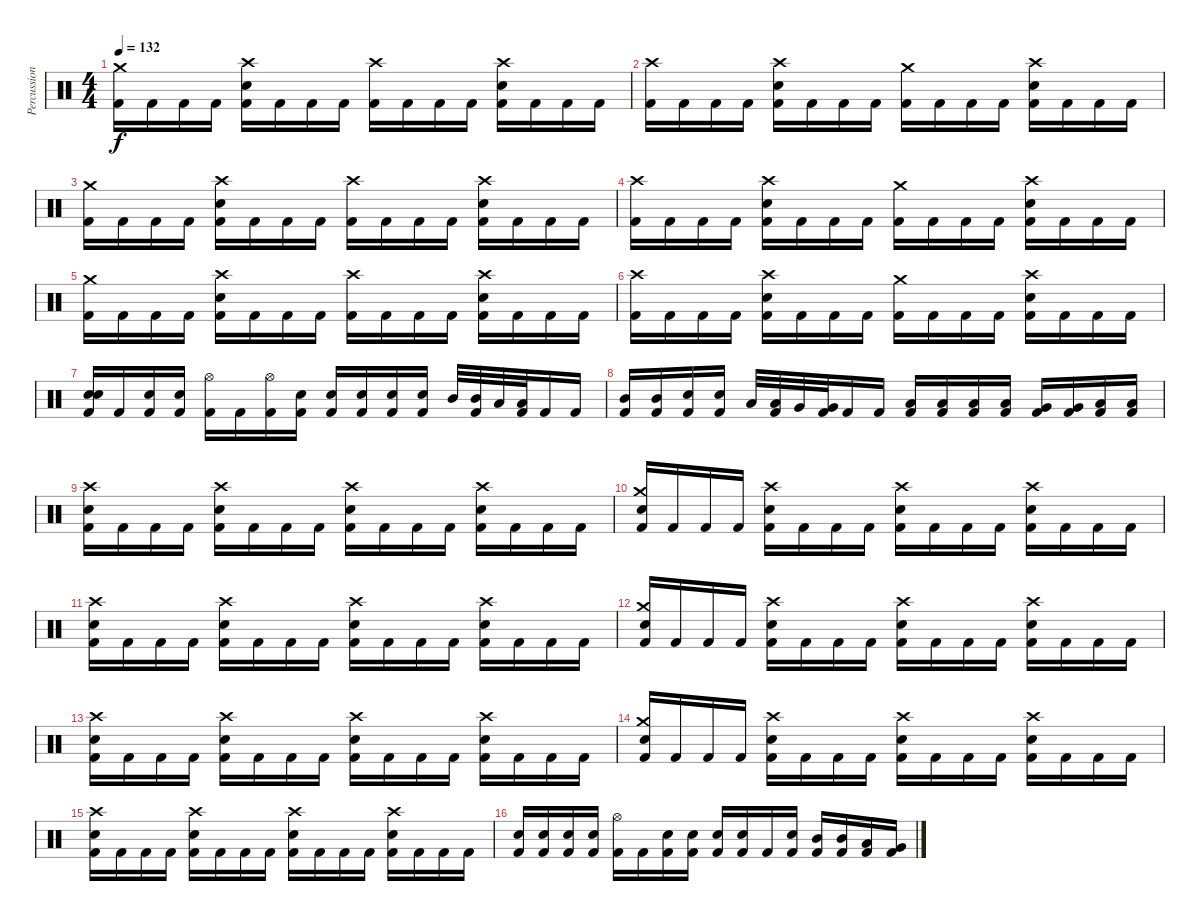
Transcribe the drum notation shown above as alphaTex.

\track ("Percussion" "Percussion") {instrument percussion}
\staff {score}
\articulation defaults
\ts (4 4)
\tempo 132
\clef neutral
\ks c
("Kick (hit) 2" "Crash medium (hit)").16{dy f} "Kick (hit) 2".16 "Kick (hit) 2".16 "Kick (hit) 2".16 ("Snare (hit) 2" "Kick (hit) 2" "Crash high (hit)").16 "Kick (hit) 2".16 "Kick (hit) 2".16 "Kick (hit) 2".16 ("Kick (hit) 2" "Crash high (hit)").16 "Kick (hit) 2".16 "Kick (hit) 2".16 "Kick (hit) 2".16 ("Snare (hit) 2" "Kick (hit) 2" "Crash high (hit)").16 "Kick (hit) 2".16 "Kick (hit) 2".16 "Kick (hit) 2".16 |
("Kick (hit) 2" "Crash high (hit)").16 "Kick (hit) 2".16 "Kick (hit) 2".16 "Kick (hit) 2".16 ("Snare (hit) 2" "Kick (hit) 2" "Crash high (hit)").16 "Kick (hit) 2".16 "Kick (hit) 2".16 "Kick (hit) 2".16 ("Kick (hit) 2" "Crash medium (hit)").16 "Kick (hit) 2".16 "Kick (hit) 2".16 "Kick (hit) 2".16 ("Snare (hit) 2" "Kick (hit) 2" "Crash high (hit)").16 "Kick (hit) 2".16 "Kick (hit) 2".16 "Kick (hit) 2".16 |
("Kick (hit) 2" "Crash medium (hit)").16 "Kick (hit) 2".16 "Kick (hit) 2".16 "Kick (hit) 2".16 ("Snare (hit) 2" "Kick (hit) 2" "Crash high (hit)").16 "Kick (hit) 2".16 "Kick (hit) 2".16 "Kick (hit) 2".16 ("Kick (hit) 2" "Crash high (hit)").16 "Kick (hit) 2".16 "Kick (hit) 2".16 "Kick (hit) 2".16 ("Snare (hit) 2" "Kick (hit) 2" "Crash high (hit)").16 "Kick (hit) 2".16 "Kick (hit) 2".16 "Kick (hit) 2".16 |
("Kick (hit) 2" "Crash high (hit)").16 "Kick (hit) 2".16 "Kick (hit) 2".16 "Kick (hit) 2".16 ("Snare (hit) 2" "Kick (hit) 2" "Crash high (hit)").16 "Kick (hit) 2".16 "Kick (hit) 2".16 "Kick (hit) 2".16 ("Kick (hit) 2" "Crash medium (hit)").16 "Kick (hit) 2".16 "Kick (hit) 2".16 "Kick (hit) 2".16 ("Snare (hit) 2" "Kick (hit) 2" "Crash high (hit)").16 "Kick (hit) 2".16 "Kick (hit) 2".16 "Kick (hit) 2".16 |
("Kick (hit) 2" "Crash medium (hit)").16 "Kick (hit) 2".16 "Kick (hit) 2".16 "Kick (hit) 2".16 ("Snare (hit) 2" "Kick (hit) 2" "Crash high (hit)").16 "Kick (hit) 2".16 "Kick (hit) 2".16 "Kick (hit) 2".16 ("Kick (hit) 2" "Crash high (hit)").16 "Kick (hit) 2".16 "Kick (hit) 2".16 "Kick (hit) 2".16 ("Snare (hit) 2" "Kick (hit) 2" "Crash high (hit)").16 "Kick (hit) 2".16 "Kick (hit) 2".16 "Kick (hit) 2".16 |
("Kick (hit) 2" "Crash high (hit)").16 "Kick (hit) 2".16 "Kick (hit) 2".16 "Kick (hit) 2".16 ("Snare (hit) 2" "Kick (hit) 2" "Crash high (hit)").16 "Kick (hit) 2".16 "Kick (hit) 2".16 "Kick (hit) 2".16 ("Kick (hit) 2" "Crash medium (hit)").16 "Kick (hit) 2".16 "Kick (hit) 2".16 "Kick (hit) 2".16 ("Snare (hit) 2" "Kick (hit) 2" "Crash high (hit)").16 "Kick (hit) 2".16 "Kick (hit) 2".16 "Kick (hit) 2".16 |
("Snare (hit) 2" "Snare (hit) 2" "Kick (hit) 2").16 "Kick (hit) 2".16 ("Snare (hit) 2" "Kick (hit) 2").16 ("Snare (hit) 2" "Kick (hit) 2").16 ("Hi-Hat (open)" "Kick (hit) 2").16 "Kick (hit) 2".16 ("Hi-Hat (open)" "Kick (hit) 2").16 ("Snare (hit) 2" "Kick (hit) 2").16 ("Snare (hit) 2" "Kick (hit) 2").16 ("Snare (hit) 2" "Kick (hit) 2").16 ("Snare (hit) 2" "Kick (hit) 2").16 ("Snare (hit) 2" "Kick (hit) 2").16 "Mid Tom (hit)".32 ("Kick (hit) 2" "Mid Tom (hit)").32 "Low Tom (hit)".32 ("Kick (hit) 2" "Low Tom (hit)").32 "Kick (hit) 2".16 "Kick (hit) 2".16 |
("Mid Tom (hit)" "Kick (hit) 2").16 ("Mid Tom (hit)" "Kick (hit) 2").16 ("Snare (hit) 2" "Kick (hit) 2").16 ("Snare (hit) 2" "Kick (hit) 2").16 "Low Tom (hit)".32 ("Low Tom (hit)" "Kick (hit) 2").32 "Very Low Tom (hit)".32 ("Very Low Tom (hit)" "Kick (hit) 2").32 "Kick (hit) 2".16 "Kick (hit) 2".16 ("Low Tom (hit)" "Kick (hit) 2").16 ("Low Tom (hit)" "Kick (hit) 2").16 ("Low Tom (hit)" "Kick (hit) 2").16 ("Low Tom (hit)" "Kick (hit) 2").16 ("Very Low Tom (hit)" "Kick (hit) 2").16 ("Very Low Tom (hit)" "Kick (hit) 2").16 ("Low Floor Tom (hit)" "Kick (hit) 2").16 ("Low Floor Tom (hit)" "Kick (hit) 2").16 |
("Snare (hit) 2" "Kick (hit) 2" "Crash high (hit)").16 "Kick (hit) 2".16 "Kick (hit) 2".16 "Kick (hit) 2".16 ("Snare (hit) 2" "Kick (hit) 2" "Crash high (hit)").16 "Kick (hit) 2".16 "Kick (hit) 2".16 "Kick (hit) 2".16 ("Snare (hit) 2" "Kick (hit) 2" "Crash high (hit)").16 "Kick (hit) 2".16 "Kick (hit) 2".16 "Kick (hit) 2".16 ("Snare (hit) 2" "Kick (hit) 2" "Crash high (hit)").16 "Kick (hit) 2".16 "Kick (hit) 2".16 "Kick (hit) 2".16 |
("Snare (hit) 2" "Kick (hit) 2" "Crash medium (hit)").16 "Kick (hit) 2".16 "Kick (hit) 2".16 "Kick (hit) 2".16 ("Snare (hit) 2" "Kick (hit) 2" "Crash high (hit)").16 "Kick (hit) 2".16 "Kick (hit) 2".16 "Kick (hit) 2".16 ("Snare (hit) 2" "Kick (hit) 2" "Crash high (hit)").16 "Kick (hit) 2".16 "Kick (hit) 2".16 "Kick (hit) 2".16 ("Snare (hit) 2" "Kick (hit) 2" "Crash high (hit)").16 "Kick (hit) 2".16 "Kick (hit) 2".16 "Kick (hit) 2".16 |
("Snare (hit) 2" "Kick (hit) 2" "Crash high (hit)").16 "Kick (hit) 2".16 "Kick (hit) 2".16 "Kick (hit) 2".16 ("Snare (hit) 2" "Kick (hit) 2" "Crash high (hit)").16 "Kick (hit) 2".16 "Kick (hit) 2".16 "Kick (hit) 2".16 ("Snare (hit) 2" "Kick (hit) 2" "Crash high (hit)").16 "Kick (hit) 2".16 "Kick (hit) 2".16 "Kick (hit) 2".16 ("Snare (hit) 2" "Kick (hit) 2" "Crash high (hit)").16 "Kick (hit) 2".16 "Kick (hit) 2".16 "Kick (hit) 2".16 |
("Snare (hit) 2" "Kick (hit) 2" "Crash medium (hit)").16 "Kick (hit) 2".16 "Kick (hit) 2".16 "Kick (hit) 2".16 ("Snare (hit) 2" "Kick (hit) 2" "Crash high (hit)").16 "Kick (hit) 2".16 "Kick (hit) 2".16 "Kick (hit) 2".16 ("Snare (hit) 2" "Kick (hit) 2" "Crash high (hit)").16 "Kick (hit) 2".16 "Kick (hit) 2".16 "Kick (hit) 2".16 ("Snare (hit) 2" "Kick (hit) 2" "Crash high (hit)").16 "Kick (hit) 2".16 "Kick (hit) 2".16 "Kick (hit) 2".16 |
("Snare (hit) 2" "Kick (hit) 2" "Crash high (hit)").16 "Kick (hit) 2".16 "Kick (hit) 2".16 "Kick (hit) 2".16 ("Snare (hit) 2" "Kick (hit) 2" "Crash high (hit)").16 "Kick (hit) 2".16 "Kick (hit) 2".16 "Kick (hit) 2".16 ("Snare (hit) 2" "Kick (hit) 2" "Crash high (hit)").16 "Kick (hit) 2".16 "Kick (hit) 2".16 "Kick (hit) 2".16 ("Snare (hit) 2" "Kick (hit) 2" "Crash high (hit)").16 "Kick (hit) 2".16 "Kick (hit) 2".16 "Kick (hit) 2".16 |
("Snare (hit) 2" "Kick (hit) 2" "Crash medium (hit)").16 "Kick (hit) 2".16 "Kick (hit) 2".16 "Kick (hit) 2".16 ("Snare (hit) 2" "Kick (hit) 2" "Crash high (hit)").16 "Kick (hit) 2".16 "Kick (hit) 2".16 "Kick (hit) 2".16 ("Snare (hit) 2" "Kick (hit) 2" "Crash high (hit)").16 "Kick (hit) 2".16 "Kick (hit) 2".16 "Kick (hit) 2".16 ("Snare (hit) 2" "Kick (hit) 2" "Crash high (hit)").16 "Kick (hit) 2".16 "Kick (hit) 2".16 "Kick (hit) 2".16 |
("Snare (hit) 2" "Kick (hit) 2" "Crash high (hit)").16 "Kick (hit) 2".16 "Kick (hit) 2".16 "Kick (hit) 2".16 ("Snare (hit) 2" "Kick (hit) 2" "Crash high (hit)").16 "Kick (hit) 2".16 "Kick (hit) 2".16 "Kick (hit) 2".16 ("Snare (hit) 2" "Kick (hit) 2" "Crash high (hit)").16 "Kick (hit) 2".16 "Kick (hit) 2".16 "Kick (hit) 2".16 ("Snare (hit) 2" "Kick (hit) 2" "Crash high (hit)").16 "Kick (hit) 2".16 "Kick (hit) 2".16 "Kick (hit) 2".16 |
("Kick (hit) 2" "Snare (hit) 2").16 ("Kick (hit) 2" "Snare (hit) 2").16 ("Kick (hit) 2" "Snare (hit) 2").16 ("Kick (hit) 2" "Snare (hit) 2").16 ("Kick (hit) 2" "Hi-Hat (open)").16 "Kick (hit) 2".16 ("Kick (hit) 2" "Snare (hit) 2").16 ("Kick (hit) 2" "Snare (hit) 2").16 ("Kick (hit) 2" "Snare (hit) 2").16 ("Kick (hit) 2" "Snare (hit) 2").16 "Kick (hit) 2".16 ("Kick (hit) 2" "Snare (hit) 2").16 ("Kick (hit) 2" "Mid Tom (hit)").16 ("Kick (hit) 2" "Mid Tom (hit)").16 ("Kick (hit) 2" "Low Tom (hit)").16 ("Kick (hit) 2" "Very Low Tom (hit)").16
